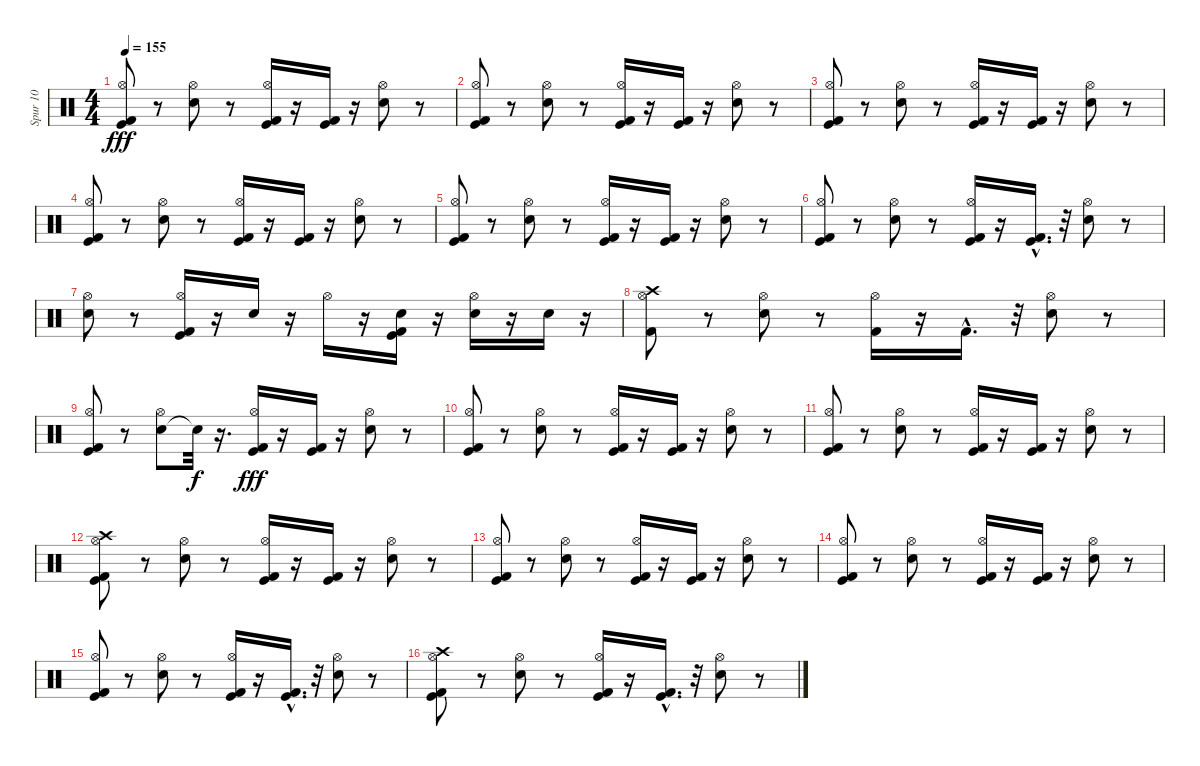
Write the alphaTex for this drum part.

\track ("Spur 10" "Spur 10") {instrument percussion}
\staff {score}
\articulation defaults
\ts (4 4)
\tempo 155
\clef neutral
\ks c
("Kick (hit)" "Hi-Hat (open)" "Kick (hit) 2").8{dy fff} r.8 ("Hi-Hat (open)" "Electric Snare (hit)").8 r.8 ("Kick (hit)" "Hi-Hat (open)" "Kick (hit) 2").16 r.16 ("Kick (hit)" "Kick (hit) 2").16 r.16 ("Hi-Hat (open)" "Electric Snare (hit)").8 r.8 |
("Kick (hit)" "Hi-Hat (open)" "Kick (hit) 2").8 r.8 ("Hi-Hat (open)" "Electric Snare (hit)").8 r.8 ("Kick (hit)" "Hi-Hat (open)" "Kick (hit) 2").16 r.16 ("Kick (hit)" "Kick (hit) 2").16 r.16 ("Hi-Hat (open)" "Electric Snare (hit)").8 r.8 |
("Kick (hit)" "Hi-Hat (open)" "Kick (hit) 2").8 r.8 ("Hi-Hat (open)" "Electric Snare (hit)").8 r.8 ("Kick (hit)" "Hi-Hat (open)" "Kick (hit) 2").16 r.16 ("Kick (hit)" "Kick (hit) 2").16 r.16 ("Hi-Hat (open)" "Electric Snare (hit)").8 r.8 |
("Kick (hit)" "Hi-Hat (open)" "Kick (hit) 2").8 r.8 ("Hi-Hat (open)" "Electric Snare (hit)").8 r.8 ("Kick (hit)" "Hi-Hat (open)" "Kick (hit) 2").16 r.16 ("Kick (hit)" "Kick (hit) 2").16 r.16 ("Hi-Hat (open)" "Electric Snare (hit)").8 r.8 |
("Kick (hit)" "Hi-Hat (open)" "Kick (hit) 2").8 r.8 ("Hi-Hat (open)" "Electric Snare (hit)").8 r.8 ("Kick (hit)" "Hi-Hat (open)" "Kick (hit) 2").16 r.16 ("Kick (hit)" "Kick (hit) 2").16 r.16 ("Hi-Hat (open)" "Electric Snare (hit)").8 r.8 |
("Kick (hit)" "Hi-Hat (open)" "Kick (hit) 2").8 r.8 ("Hi-Hat (open)" "Electric Snare (hit)").8 r.8 ("Kick (hit)" "Hi-Hat (open)" "Kick (hit) 2").16 r.16 ("Kick (hit)"{hac} "Kick (hit) 2"{hac}).16{d} r.32 ("Hi-Hat (open)" "Electric Snare (hit)").8 r.8 |
("Electric Snare (hit)" "Hi-Hat (open)").8 r.8 ("Kick (hit)" "Kick (hit) 2" "Hi-Hat (open)").16 r.16 "Electric Snare (hit)".16 r.16 "Hi-Hat (open)".16 r.16 ("Electric Snare (hit)" "Kick (hit)" "Kick (hit) 2").16 r.16 ("Electric Snare (hit)" "Hi-Hat (open)").16 r.16 "Electric Snare (hit)".16 r.16 |
("Kick (hit) 2" "Hi-Hat (open)" "Crash high (hit)").8 r.8 ("Hi-Hat (open)" "Electric Snare (hit)").8 r.8 ("Hi-Hat (open)" "Kick (hit) 2").16 r.16 "Kick (hit) 2"{hac}.16{d} r.32 ("Hi-Hat (open)" "Electric Snare (hit)").8 r.8 |
("Kick (hit) 2" "Hi-Hat (open)" "Kick (hit)").8 r.8 ("Electric Snare (hit)" "Hi-Hat (open)").8 "Snare (hit)"{t}.32{dy f} r.16{d} ("Kick (hit) 2" "Hi-Hat (open)" "Kick (hit)").16{dy fff} r.16 ("Kick (hit) 2" "Kick (hit)").16 r.16 ("Electric Snare (hit)" "Hi-Hat (open)").8 r.8 |
("Kick (hit) 2" "Hi-Hat (open)" "Kick (hit)").8 r.8 ("Electric Snare (hit)" "Hi-Hat (open)").8 r.8 ("Kick (hit) 2" "Hi-Hat (open)" "Kick (hit)").16 r.16 ("Kick (hit) 2" "Kick (hit)").16 r.16 ("Hi-Hat (open)" "Electric Snare (hit)").8 r.8 |
("Hi-Hat (open)" "Kick (hit)" "Kick (hit) 2").8 r.8 ("Hi-Hat (open)" "Electric Snare (hit)").8 r.8 ("Kick (hit) 2" "Hi-Hat (open)" "Kick (hit)").16 r.16 ("Kick (hit)" "Kick (hit) 2").16 r.16 ("Hi-Hat (open)" "Electric Snare (hit)").8 r.8 |
("Crash high (hit)" "Hi-Hat (open)" "Kick (hit)" "Kick (hit) 2").8 r.8 ("Hi-Hat (open)" "Electric Snare (hit)").8 r.8 ("Hi-Hat (open)" "Kick (hit)" "Kick (hit) 2").16 r.16 ("Kick (hit)" "Kick (hit) 2").16 r.16 ("Hi-Hat (open)" "Electric Snare (hit)").8 r.8 |
("Hi-Hat (open)" "Kick (hit)" "Kick (hit) 2").8 r.8 ("Hi-Hat (open)" "Electric Snare (hit)").8 r.8 ("Hi-Hat (open)" "Kick (hit)" "Kick (hit) 2").16 r.16 ("Kick (hit)" "Kick (hit) 2").16 r.16 ("Hi-Hat (open)" "Electric Snare (hit)").8 r.8 |
("Hi-Hat (open)" "Kick (hit)" "Kick (hit) 2").8 r.8 ("Hi-Hat (open)" "Electric Snare (hit)").8 r.8 ("Hi-Hat (open)" "Kick (hit)" "Kick (hit) 2").16 r.16 ("Kick (hit)" "Kick (hit) 2").16 r.16 ("Hi-Hat (open)" "Electric Snare (hit)").8 r.8 |
("Hi-Hat (open)" "Kick (hit)" "Kick (hit) 2").8 r.8 ("Hi-Hat (open)" "Electric Snare (hit)").8 r.8 ("Hi-Hat (open)" "Kick (hit)" "Kick (hit) 2").16 r.16 ("Kick (hit)"{hac} "Kick (hit) 2"{hac}).16{d} r.32 ("Hi-Hat (open)" "Electric Snare (hit)").8 r.8 |
("Crash high (hit)" "Hi-Hat (open)" "Kick (hit)" "Kick (hit) 2").8 r.8 ("Hi-Hat (open)" "Electric Snare (hit)").8 r.8 ("Hi-Hat (open)" "Kick (hit)" "Kick (hit) 2").16 r.16 ("Kick (hit)"{hac} "Kick (hit) 2"{hac}).16{d} r.32 ("Hi-Hat (open)" "Electric Snare (hit)").8 r.8
